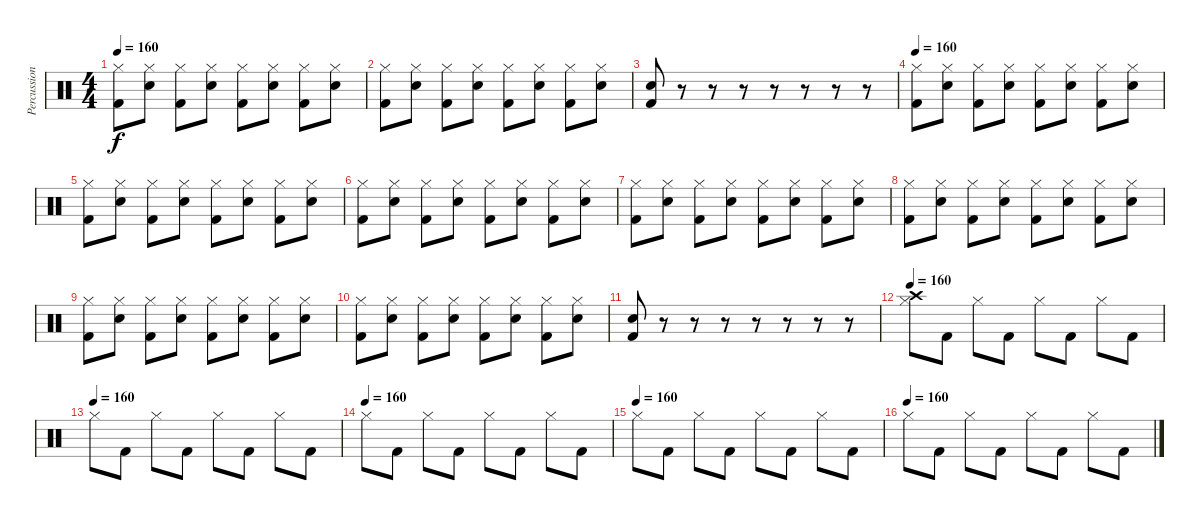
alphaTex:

\track ("Percussions" "Percussion") {instrument percussion}
\staff {score}
\articulation defaults
\ts (4 4)
\tempo 160
\clef neutral
\ks c
("Hi-Hat (closed)" "Kick (hit) 2").8{dy f} ("Hi-Hat (closed)" "Electric Snare (hit)").8 ("Hi-Hat (closed)" "Kick (hit) 2").8 ("Hi-Hat (closed)" "Electric Snare (hit)").8 ("Hi-Hat (closed)" "Kick (hit) 2").8 ("Hi-Hat (closed)" "Electric Snare (hit)").8 ("Hi-Hat (closed)" "Kick (hit) 2").8 ("Hi-Hat (closed)" "Electric Snare (hit)").8 |
("Hi-Hat (closed)" "Kick (hit) 2").8 ("Hi-Hat (closed)" "Electric Snare (hit)").8 ("Hi-Hat (closed)" "Kick (hit) 2").8 ("Hi-Hat (closed)" "Electric Snare (hit)").8 ("Hi-Hat (closed)" "Kick (hit) 2").8 ("Hi-Hat (closed)" "Electric Snare (hit)").8 ("Hi-Hat (closed)" "Kick (hit) 2").8 ("Hi-Hat (closed)" "Electric Snare (hit)").8 |
("Kick (hit) 2" "Electric Snare (hit)").8 r.8 r.8 r.8 r.8 r.8 r.8 r.8 |
\tempo 160
("Hi-Hat (closed)" "Kick (hit) 2").8 ("Hi-Hat (closed)" "Electric Snare (hit)").8 ("Hi-Hat (closed)" "Kick (hit) 2").8 ("Hi-Hat (closed)" "Electric Snare (hit)").8 ("Hi-Hat (closed)" "Kick (hit) 2").8 ("Hi-Hat (closed)" "Electric Snare (hit)").8 ("Hi-Hat (closed)" "Kick (hit) 2").8 ("Hi-Hat (closed)" "Electric Snare (hit)").8 |
("Hi-Hat (closed)" "Kick (hit) 2").8 ("Hi-Hat (closed)" "Electric Snare (hit)").8 ("Hi-Hat (closed)" "Kick (hit) 2").8 ("Hi-Hat (closed)" "Electric Snare (hit)").8 ("Hi-Hat (closed)" "Kick (hit) 2").8 ("Hi-Hat (closed)" "Electric Snare (hit)").8 ("Hi-Hat (closed)" "Kick (hit) 2").8 ("Hi-Hat (closed)" "Electric Snare (hit)").8 |
("Hi-Hat (closed)" "Kick (hit) 2").8 ("Hi-Hat (closed)" "Electric Snare (hit)").8 ("Hi-Hat (closed)" "Kick (hit) 2").8 ("Hi-Hat (closed)" "Electric Snare (hit)").8 ("Hi-Hat (closed)" "Kick (hit) 2").8 ("Hi-Hat (closed)" "Electric Snare (hit)").8 ("Hi-Hat (closed)" "Kick (hit) 2").8 ("Hi-Hat (closed)" "Electric Snare (hit)").8 |
("Hi-Hat (closed)" "Kick (hit) 2").8 ("Hi-Hat (closed)" "Electric Snare (hit)").8 ("Hi-Hat (closed)" "Kick (hit) 2").8 ("Hi-Hat (closed)" "Electric Snare (hit)").8 ("Hi-Hat (closed)" "Kick (hit) 2").8 ("Hi-Hat (closed)" "Electric Snare (hit)").8 ("Hi-Hat (closed)" "Kick (hit) 2").8 ("Hi-Hat (closed)" "Electric Snare (hit)").8 |
("Hi-Hat (closed)" "Kick (hit) 2").8 ("Hi-Hat (closed)" "Electric Snare (hit)").8 ("Hi-Hat (closed)" "Kick (hit) 2").8 ("Hi-Hat (closed)" "Electric Snare (hit)").8 ("Hi-Hat (closed)" "Kick (hit) 2").8 ("Hi-Hat (closed)" "Electric Snare (hit)").8 ("Hi-Hat (closed)" "Kick (hit) 2").8 ("Hi-Hat (closed)" "Electric Snare (hit)").8 |
("Hi-Hat (closed)" "Kick (hit) 2").8 ("Hi-Hat (closed)" "Electric Snare (hit)").8 ("Hi-Hat (closed)" "Kick (hit) 2").8 ("Hi-Hat (closed)" "Electric Snare (hit)").8 ("Hi-Hat (closed)" "Kick (hit) 2").8 ("Hi-Hat (closed)" "Electric Snare (hit)").8 ("Hi-Hat (closed)" "Kick (hit) 2").8 ("Hi-Hat (closed)" "Electric Snare (hit)").8 |
("Hi-Hat (closed)" "Kick (hit) 2").8 ("Hi-Hat (closed)" "Electric Snare (hit)").8 ("Hi-Hat (closed)" "Kick (hit) 2").8 ("Hi-Hat (closed)" "Electric Snare (hit)").8 ("Hi-Hat (closed)" "Kick (hit) 2").8 ("Hi-Hat (closed)" "Electric Snare (hit)").8 ("Hi-Hat (closed)" "Kick (hit) 2").8 ("Hi-Hat (closed)" "Electric Snare (hit)").8 |
("Kick (hit) 2" "Electric Snare (hit)").8 r.8 r.8 r.8 r.8 r.8 r.8 r.8 |
\tempo 160
("Crash high (hit)" "Hi-Hat (closed)").8 "Kick (hit) 2".8 "Hi-Hat (closed)".8 "Kick (hit) 2".8 "Hi-Hat (closed)".8 "Kick (hit) 2".8 "Hi-Hat (closed)".8 "Kick (hit) 2".8 |
\tempo (160)
"Hi-Hat (closed)".8 "Kick (hit) 2".8 "Hi-Hat (closed)".8 "Kick (hit) 2".8 "Hi-Hat (closed)".8 "Kick (hit) 2".8 "Hi-Hat (closed)".8 "Kick (hit) 2".8 |
\tempo (160)
"Hi-Hat (closed)".8 "Kick (hit) 2".8 "Hi-Hat (closed)".8 "Kick (hit) 2".8 "Hi-Hat (closed)".8 "Kick (hit) 2".8 "Hi-Hat (closed)".8 "Kick (hit) 2".8 |
\tempo (160)
"Hi-Hat (closed)".8 "Kick (hit) 2".8 "Hi-Hat (closed)".8 "Kick (hit) 2".8 "Hi-Hat (closed)".8 "Kick (hit) 2".8 "Hi-Hat (closed)".8 "Kick (hit) 2".8 |
\tempo (160)
"Hi-Hat (closed)".8 "Kick (hit) 2".8 "Hi-Hat (closed)".8 "Kick (hit) 2".8 "Hi-Hat (closed)".8 "Kick (hit) 2".8 "Hi-Hat (closed)".8 "Kick (hit) 2".8
